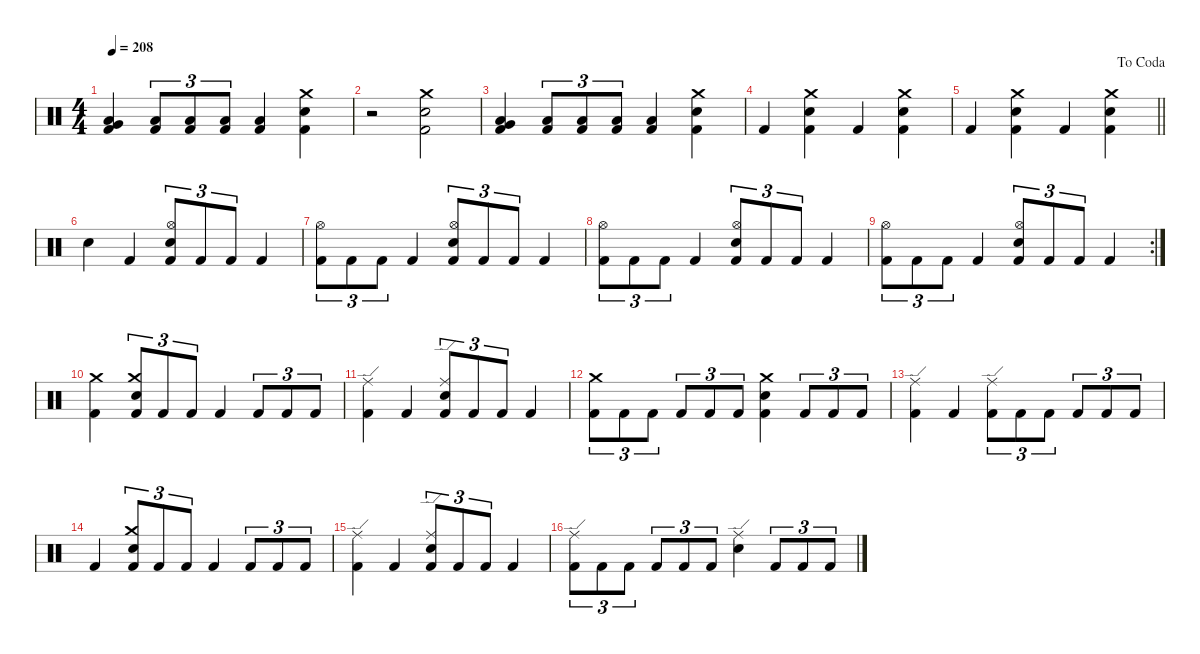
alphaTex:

\defaultSystemsLayout 4
\hideDynamics
\bracketExtendMode nobrackets
\singleTrackTrackNamePolicy hidden
\multiTrackTrackNamePolicy hidden
\firstSystemTrackNameMode fullname
\firstSystemTrackNameOrientation horizontal
\otherSystemsTrackNameOrientation horizontal
\track ("Drums" "drm.") {instrument percussion}
\staff {score}
\articulation defaults
\ts (4 4)
\beaming (8 2 2 2 2)
\tempo 208
\clef neutral
\ks c
("Very Low Tom (hit)" "Low Floor Tom (hit)" "Kick (hit) 2").4{dy mp beam Up} ("Low Floor Tom (hit)" "Kick (hit) 2").8{tu (3 2) beam Up} ("Low Floor Tom (hit)" "Kick (hit) 2").8{tu (3 2) beam Up} ("Low Floor Tom (hit)" "Kick (hit) 2").8{tu (3 2) beam Up} ("Low Floor Tom (hit)" "Kick (hit) 2").4{beam Up} ("Crash medium (hit)" "Snare (hit) 2" "Kick (hit) 2").4{dy f beam Down} |
r.2{beam Down} ("Crash medium (hit)" "Snare (hit) 2" "Kick (hit) 2").2{beam Down} |
("Very Low Tom (hit)" "Low Floor Tom (hit)" "Kick (hit) 2").4{dy mp beam Up} ("Low Floor Tom (hit)" "Kick (hit) 2").8{tu (3 2) beam Up} ("Low Floor Tom (hit)" "Kick (hit) 2").8{tu (3 2) beam Up} ("Low Floor Tom (hit)" "Kick (hit) 2").8{tu (3 2) beam Up} ("Low Floor Tom (hit)" "Kick (hit) 2").4{beam Up} ("Crash medium (hit)" "Snare (hit) 2" "Kick (hit) 2").4{dy f beam Down} |
"Kick (hit) 2".4{beam Up} ("Crash medium (hit)" "Snare (hit) 2" "Kick (hit) 2").4{beam Down} "Kick (hit) 2".4{beam Up} ("Crash medium (hit)" "Snare (hit) 2" "Kick (hit) 2").4{beam Down} |
\jump dacoda
\barLineRight lightlight "Kick (hit) 2".4{beam Up}
("Crash medium (hit)" "Snare (hit) 2" "Kick (hit) 2").4{beam Down} "Kick (hit) 2".4{beam Up} ("Crash medium (hit)" "Snare (hit) 2" "Kick (hit) 2").4{beam Down} |
"Snare (hit) 2".4{beam Down} "Kick (hit) 2".4{beam Up} ("Hi-Hat (open)" "Snare (hit) 2" "Kick (hit) 2").8{tu (3 2) beam Up} "Kick (hit) 2".8{tu (3 2) beam Up} "Kick (hit) 2".8{tu (3 2) beam Up} "Kick (hit) 2".4{beam Up} |
("Hi-Hat (open)" "Kick (hit) 2").8{tu (3 2) beam Down} "Kick (hit) 2".8{tu (3 2) beam Down} "Kick (hit) 2".8{tu (3 2) beam Down} "Kick (hit) 2".4{beam Up} ("Hi-Hat (open)" "Snare (hit) 2" "Kick (hit) 2").8{tu (3 2) beam Up} "Kick (hit) 2".8{tu (3 2) beam Up} "Kick (hit) 2".8{tu (3 2) beam Up} "Kick (hit) 2".4{beam Up} |
("Hi-Hat (open)" "Kick (hit) 2").8{tu (3 2) beam Down} "Kick (hit) 2".8{tu (3 2) beam Down} "Kick (hit) 2".8{tu (3 2) beam Down} "Kick (hit) 2".4{beam Up} ("Hi-Hat (open)" "Snare (hit) 2" "Kick (hit) 2").8{tu (3 2) beam Up} "Kick (hit) 2".8{tu (3 2) beam Up} "Kick (hit) 2".8{tu (3 2) beam Up} "Kick (hit) 2".4{beam Up} |
\rc 2
("Hi-Hat (open)" "Kick (hit) 2").8{tu (3 2) beam Down} "Kick (hit) 2".8{tu (3 2) beam Down} "Kick (hit) 2".8{tu (3 2) beam Down} "Kick (hit) 2".4{beam Up} ("Hi-Hat (open)" "Snare (hit) 2" "Kick (hit) 2").8{tu (3 2) beam Up} "Kick (hit) 2".8{tu (3 2) beam Up} "Kick (hit) 2".8{tu (3 2) beam Up} "Kick (hit) 2".4{beam Up} |
("Crash medium (hit)" "Kick (hit) 2").4{beam Down} ("Crash medium (hit)" "Snare (hit) 2" "Kick (hit) 2").8{tu (3 2) beam Up} "Kick (hit) 2".8{tu (3 2) beam Up} "Kick (hit) 2".8{tu (3 2) beam Up} "Kick (hit) 2".4{beam Up} "Kick (hit) 2".8{tu (3 2) beam Up} "Kick (hit) 2".8{tu (3 2) beam Up} "Kick (hit) 2".8{tu (3 2) beam Up} |
("Ride (edge)" "Kick (hit) 2").4{beam Down} "Kick (hit) 2".4{beam Up} ("Ride (edge)" "Snare (hit) 2" "Kick (hit) 2").8{tu (3 2) beam Up} "Kick (hit) 2".8{tu (3 2) beam Up} "Kick (hit) 2".8{tu (3 2) beam Up} "Kick (hit) 2".4{beam Up} |
("Crash medium (hit)" "Kick (hit) 2").8{tu (3 2) beam Down} "Kick (hit) 2".8{tu (3 2) beam Down} "Kick (hit) 2".8{tu (3 2) beam Down} "Kick (hit) 2".8{tu (3 2) beam Up} "Kick (hit) 2".8{tu (3 2) beam Up} "Kick (hit) 2".8{tu (3 2) beam Up} ("Crash medium (hit)" "Snare (hit) 2" "Kick (hit) 2").4{beam Down} "Kick (hit) 2".8{tu (3 2) beam Up} "Kick (hit) 2".8{tu (3 2) beam Up} "Kick (hit) 2".8{tu (3 2) beam Up} |
("Ride (edge)" "Kick (hit) 2").4{beam Down} "Kick (hit) 2".4{beam Up} ("Ride (edge)" "Kick (hit) 2").8{tu (3 2) beam Down} "Kick (hit) 2".8{tu (3 2) beam Down} "Kick (hit) 2".8{tu (3 2) beam Down} "Kick (hit) 2".8{tu (3 2) beam Up} "Kick (hit) 2".8{tu (3 2) beam Up} "Kick (hit) 2".8{tu (3 2) beam Up} |
"Kick (hit) 2".4{beam Up} ("Crash medium (hit)" "Snare (hit) 2" "Kick (hit) 2").8{tu (3 2) beam Up} "Kick (hit) 2".8{tu (3 2) beam Up} "Kick (hit) 2".8{tu (3 2) beam Up} "Kick (hit) 2".4{beam Up} "Kick (hit) 2".8{tu (3 2) beam Up} "Kick (hit) 2".8{tu (3 2) beam Up} "Kick (hit) 2".8{tu (3 2) beam Up} |
("Ride (edge)" "Kick (hit) 2").4{beam Down} "Kick (hit) 2".4{beam Up} ("Ride (edge)" "Snare (hit) 2" "Kick (hit) 2").8{tu (3 2) beam Up} "Kick (hit) 2".8{tu (3 2) beam Up} "Kick (hit) 2".8{tu (3 2) beam Up} "Kick (hit) 2".4{beam Up} |
("Ride (edge)" "Kick (hit) 2").8{tu (3 2) beam Down} "Kick (hit) 2".8{tu (3 2) beam Down} "Kick (hit) 2".8{tu (3 2) beam Down} "Kick (hit) 2".8{tu (3 2) beam Up} "Kick (hit) 2".8{tu (3 2) beam Up} "Kick (hit) 2".8{tu (3 2) beam Up} ("Ride (edge)" "Snare (hit) 2").4{beam Down} "Kick (hit) 2".8{tu (3 2) beam Up} "Kick (hit) 2".8{tu (3 2) beam Up} "Kick (hit) 2".8{tu (3 2) beam Up}
